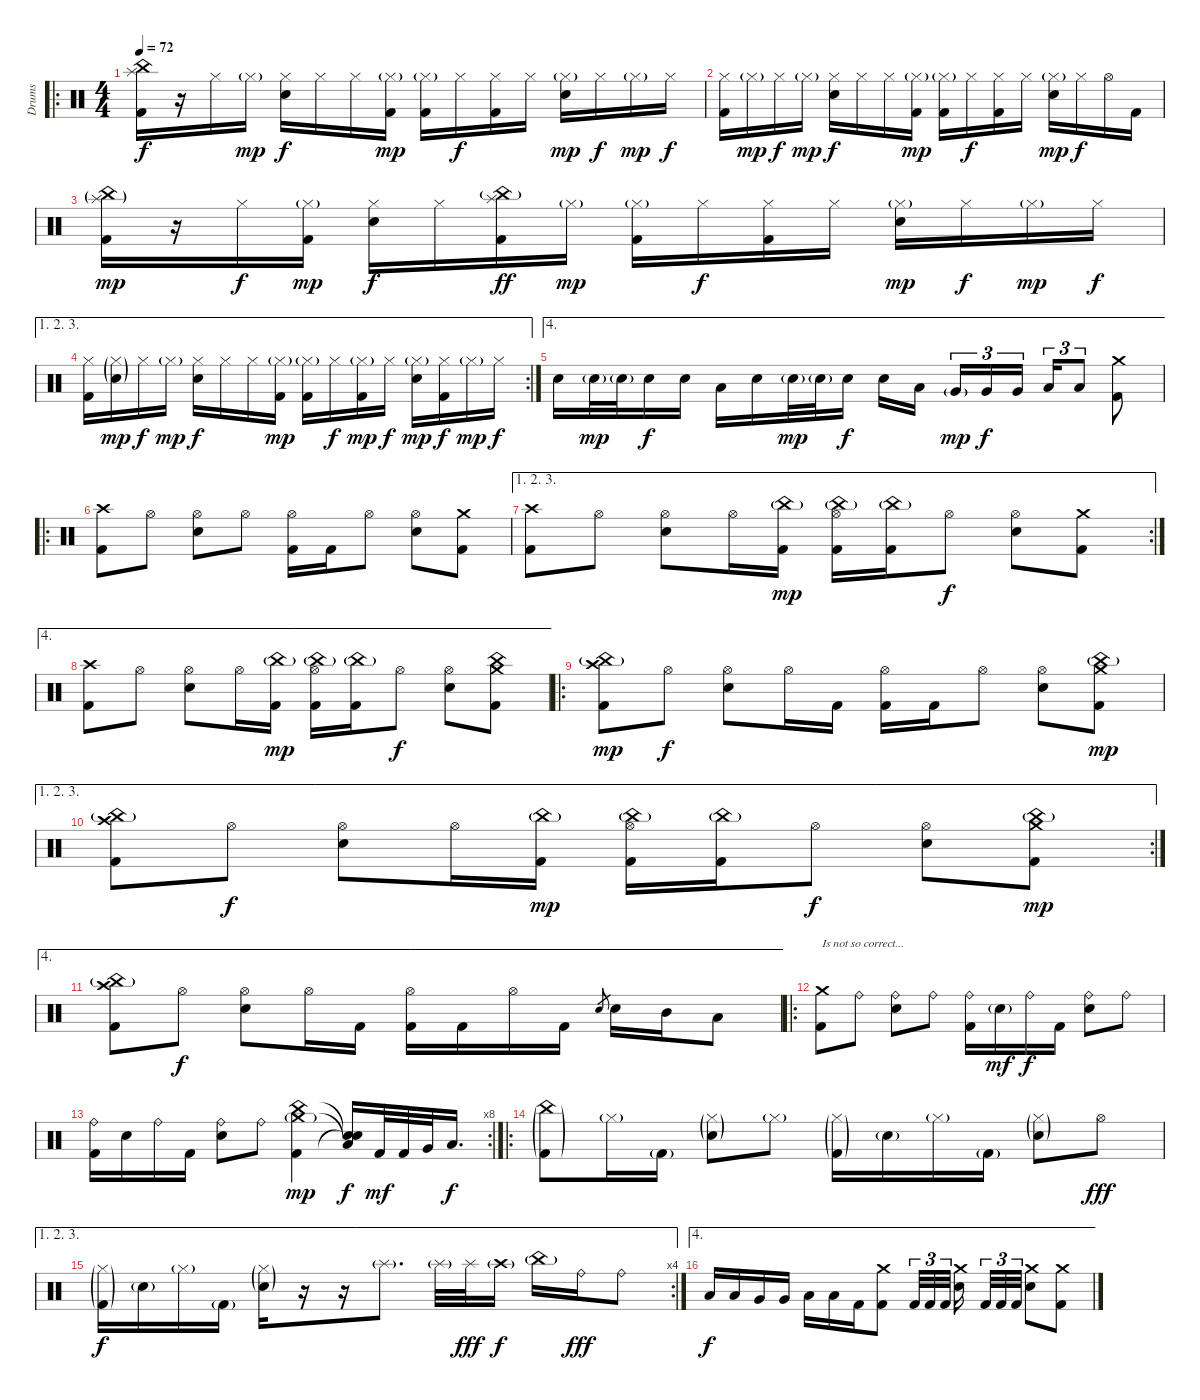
\track ("Drums" "Drums") {instrument percussion}
\staff {score}
\articulation defaults
\ro
\ts (4 4)
\tempo 72
\clef neutral
\ks c
("Splash (hit)" "China (hit)" "Kick (hit) 2").16{dy f} r.16 "Hi-Hat (closed)".16 "Hi-Hat (closed)"{g}.16{dy mp} ("Hi-Hat (closed)" "Electric Snare (hit)").16{dy f} "Hi-Hat (closed)".16 "Hi-Hat (closed)".16 ("Hi-Hat (closed)"{g} "Kick (hit) 2").16{dy mp} ("Hi-Hat (closed)"{g} "Kick (hit) 2").16 "Hi-Hat (closed)".16{dy f} ("Hi-Hat (closed)" "Kick (hit) 2").16 "Hi-Hat (closed)".16 ("Hi-Hat (closed)"{g} "Electric Snare (hit)").16{dy mp} "Hi-Hat (closed)".16{dy f} "Hi-Hat (closed)"{g}.16{dy mp} "Hi-Hat (closed)".16{dy f} |
("Hi-Hat (closed)" "Kick (hit) 2").16 "Hi-Hat (closed)"{g}.16{dy mp} "Hi-Hat (closed)".16{dy f} "Hi-Hat (closed)"{g}.16{dy mp} ("Hi-Hat (closed)" "Electric Snare (hit)").16{dy f} "Hi-Hat (closed)".16 "Hi-Hat (closed)".16 ("Hi-Hat (closed)"{g} "Kick (hit) 2").16{dy mp} ("Hi-Hat (closed)"{g} "Kick (hit) 2").16 "Hi-Hat (closed)".16{dy f} ("Hi-Hat (closed)" "Kick (hit) 2").16 "Hi-Hat (closed)".16 ("Hi-Hat (closed)"{g} "Electric Snare (hit)").16{dy mp} "Hi-Hat (closed)".16{dy f} "Hi-Hat (open)".16 "Kick (hit) 2".16 |
("Splash (hit)"{g} "China (hit)"{g} "Kick (hit) 2").16{dy mp} r.16 "Hi-Hat (closed)".16{dy f} ("Hi-Hat (closed)"{g} "Kick (hit) 2").16{dy mp} ("Hi-Hat (closed)" "Electric Snare (hit)").16{dy f} "Hi-Hat (closed)".16 ("China (hit)"{g} "Splash (hit)" "Kick (hit) 2").16{dy ff} "Hi-Hat (closed)"{g}.16{dy mp} ("Hi-Hat (closed)"{g} "Kick (hit) 2").16 "Hi-Hat (closed)".16{dy f} ("Hi-Hat (closed)" "Kick (hit) 2").16 "Hi-Hat (closed)".16 ("Hi-Hat (closed)"{g} "Electric Snare (hit)").16{dy mp} "Hi-Hat (closed)".16{dy f} "Hi-Hat (closed)"{g}.16{dy mp} "Hi-Hat (closed)".16{dy f} |
\ae (1 2 3)
\rc 2
("Hi-Hat (closed)" "Kick (hit) 2").16 ("Hi-Hat (closed)"{g} "Electric Snare (hit)"{g}).16{dy mp} "Hi-Hat (closed)".16{dy f} "Hi-Hat (closed)"{g}.16{dy mp} ("Hi-Hat (closed)" "Electric Snare (hit)").16{dy f} "Hi-Hat (closed)".16 "Hi-Hat (closed)".16 ("Hi-Hat (closed)"{g} "Kick (hit) 2").16{dy mp} ("Hi-Hat (closed)"{g} "Kick (hit) 2").16 "Hi-Hat (closed)".16{dy f} ("Hi-Hat (closed)"{g} "Kick (hit) 2").16{dy mp} "Hi-Hat (closed)".16{dy f} ("Hi-Hat (closed)"{g} "Electric Snare (hit)").16{dy mp} ("Hi-Hat (closed)" "Kick (hit) 2").16{dy f} "Hi-Hat (closed)"{g}.16{dy mp} "Hi-Hat (closed)".16{dy f} |
\ae 4 "Electric Snare (hit)".16 "Electric Snare (hit)"{g}.32{dy mp} "Electric Snare (hit)"{g}.32 "Electric Snare (hit)".16{dy f} "Electric Snare (hit)".16 "Low Tom (hit)".16 "Electric Snare (hit)".16 "Electric Snare (hit)"{g}.32{dy mp} "Electric Snare (hit)"{g}.32 "Electric Snare (hit)".16{dy f} "Electric Snare (hit)".16 "Low Tom (hit)".16{beam splitsecondary} "Very Low Tom (hit)"{g}.16{tu (3 2) dy mp} "Very Low Tom (hit)".16{tu (3 2) dy f} "Very Low Tom (hit)".16{tu (3 2)} "Low Floor Tom (hit)".16{tu (3 2)} "Low Floor Tom (hit)".8{tu (3 2)}
("Crash medium (hit)" "Kick (hit) 2").8 |
\ro
("Crash high (hit)" "Kick (hit) 2").8 "Hi-Hat (open)".8 ("Hi-Hat (open)" "Electric Snare (hit)").8 "Hi-Hat (open)".8 ("Hi-Hat (open)" "Kick (hit) 2").16 "Kick (hit) 2".16 "Hi-Hat (open)".8 ("Hi-Hat (open)" "Electric Snare (hit)").8 ("Crash medium (hit)" "Kick (hit) 2").8 |
\ae (1 2 3)
\rc 2
("Crash high (hit)" "Kick (hit) 2").8 "Hi-Hat (open)".8 ("Hi-Hat (open)" "Electric Snare (hit)").8 "Hi-Hat (open)".16 ("China (hit)"{g} "Kick (hit) 2").16{dy mp} ("China (hit)"{g} "Hi-Hat (open)" "Kick (hit) 2").16 ("China (hit)"{g} "Kick (hit) 2").16 "Hi-Hat (open)".8{dy f} ("Hi-Hat (open)" "Electric Snare (hit)").8 ("Crash medium (hit)" "Kick (hit) 2").8 |
\ae 4
("Crash high (hit)" "Kick (hit) 2").8 "Hi-Hat (open)".8 ("Hi-Hat (open)" "Electric Snare (hit)").8 "Hi-Hat (open)".16 ("China (hit)"{g} "Kick (hit) 2").16{dy mp} ("China (hit)"{g} "Hi-Hat (open)" "Kick (hit) 2").16 ("China (hit)"{g} "Kick (hit) 2").16 "Hi-Hat (open)".8{dy f} ("Hi-Hat (open)" "Electric Snare (hit)").8 ("Crash medium (hit)" "China (hit)" "Kick (hit) 2").8 |
\ro
("Crash high (hit)" "China (hit)"{g} "Kick (hit) 2").8{dy mp} "Hi-Hat (open)".8{dy f} ("Hi-Hat (open)" "Electric Snare (hit)").8 "Hi-Hat (open)".16 "Kick (hit) 2".16 ("Hi-Hat (open)" "Kick (hit) 2").16 "Kick (hit) 2".16 "Hi-Hat (open)".8 ("Hi-Hat (open)" "Electric Snare (hit)").8 ("Crash medium (hit)" "China (hit)"{g} "Kick (hit) 2").8{dy mp} |
\ae (1 2 3)
\rc 2
("Crash high (hit)" "China (hit)"{g} "Kick (hit) 2").8 "Hi-Hat (open)".8{dy f} ("Hi-Hat (open)" "Electric Snare (hit)").8 "Hi-Hat (open)".16 ("China (hit)"{g} "Kick (hit) 2").16{dy mp} ("China (hit)"{g} "Hi-Hat (open)" "Kick (hit) 2").16 ("China (hit)"{g} "Kick (hit) 2").16 "Hi-Hat (open)".8{dy f} ("Hi-Hat (open)" "Electric Snare (hit)").8 ("Crash medium (hit)" "China (hit)"{g} "Kick (hit) 2").8{dy mp} |
\ae 4
("Crash high (hit)" "China (hit)"{g} "Kick (hit) 2").8 "Hi-Hat (open)".8{dy f} ("Hi-Hat (open)" "Electric Snare (hit)").8 "Hi-Hat (open)".16 "Kick (hit) 2".16 ("Hi-Hat (open)" "Kick (hit) 2").16 "Kick (hit) 2".16 "Hi-Hat (open)".16 "Kick (hit) 2".16 "Electric Snare (hit)".8{gr} "Electric Snare (hit)".16 "Mid Tom (hit)".16 "Low Tom (hit)".8 |
\ro
("Crash medium (hit)" "Kick (hit) 2").8{txt "Is not so correct..."} "Ride (bell)".8 ("Ride (bell)" "Electric Snare (hit)").8 "Ride (bell)".8 ("Ride (bell)" "Kick (hit) 2").16 "Electric Snare (hit)"{g}.16{dy mf} "Ride (bell)".16{dy f} "Kick (hit) 2".16 ("Ride (bell)" "Electric Snare (hit)").8 "Ride (bell)".8 |
\rc 8
("Ride (bell)" "Kick (hit) 2").16 "Electric Snare (hit)".16 "Ride (bell)".16 "Kick (hit) 2".16 ("Ride (bell)" "Electric Snare (hit)").8 "Ride (bell)".8 ("China (hit)" "Crash medium (hit)"{g} "Kick (hit) 2").4{dy mp} ("Snare (hit)"{t} "Low Floor Tom (hit)"{t} "Snare (hit)"{t}).16{dy f} "Kick (hit) 2".32{dy mf} "Kick (hit) 2".32 "Very Low Tom (hit)".32 "Low Floor Tom (hit)".16{d dy f} |
\ro
("China (hit)"{g} "Kick (hit) 2"{g}).8 "Hi-Hat (closed)"{g}.16 "Kick (hit) 2"{g}.16 ("Hi-Hat (closed)"{g} "Electric Snare (hit)"{g}).8 "Hi-Hat (closed)"{g}.8 ("Hi-Hat (closed)"{g} "Kick (hit) 2"{g}).16 "Electric Snare (hit)"{g}.16 "Hi-Hat (closed)"{g}.16 "Kick (hit) 2"{g}.16 ("Hi-Hat (closed)"{g} "Electric Snare (hit)"{g}).8 "Hi-Hat (open)".8{dy fff} |
\ae (1 2 3)
\rc 4
("Hi-Hat (closed)"{g} "Kick (hit) 2"{g}).16{dy f} "Electric Snare (hit)"{g}.16 "Hi-Hat (closed)"{g}.16 "Kick (hit) 2"{g}.16 ("Hi-Hat (closed)"{g} "Electric Snare (hit)"{g}).16 r.16 r.16 "Splash (hit)"{g}.8{d} "Splash (hit)"{g}.32 "Splash (hit)".32{dy fff} "Crash high (hit)"{g}.16{dy f} "China (hit)"{g}.16 "Ride (bell)".16{dy fff} "Ride (bell)".8 |
\ae 4 "Low Tom (hit)".16{dy f} "Low Tom (hit)".16 "Very Low Tom (hit)".16 "Very Low Tom (hit)".16 "Low Floor Tom (hit)".16 "Low Floor Tom (hit)".16 "Kick (hit) 2".16
("Crash medium (hit)" "Kick (hit) 2").8 "Kick (hit) 2".32{tu (3 2)} "Kick (hit) 2".32{tu (3 2)} "Kick (hit) 2".32{tu (3 2) beam splitsecondary} ("Crash medium (hit)" "Electric Snare (hit)").16{beam splitsecondary} "Kick (hit) 2".32{tu (3 2)} "Kick (hit) 2".32{tu (3 2)} "Kick (hit) 2".32{tu (3 2)} ("Crash medium (hit)" "Electric Snare (hit)").8 ("Crash medium (hit)" "Kick (hit) 2").8
